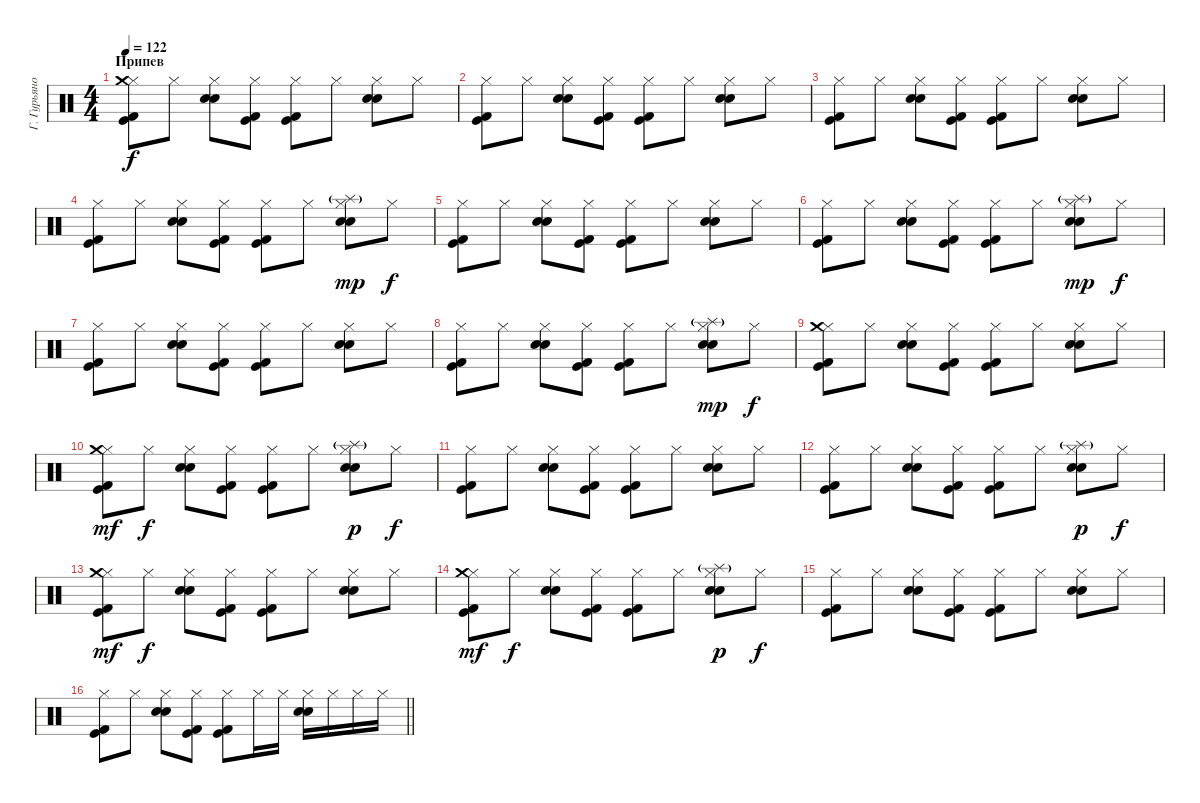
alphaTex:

\track ("Г. Гурьянов" "Г. Гурьяно") {instrument percussion}
\staff
\articulation defaults
\ts (4 4)
\section ("" "Припев")
\tempo 122
\clef neutral
\ks c
("Hi-Hat (closed)" "Crash medium (hit)" "Kick (hit)" "Kick (hit) 2").8{dy f} "Hi-Hat (closed)".8 ("Hi-Hat (closed)" "Electric Snare (hit)" "Snare (hit) 2").8 ("Hi-Hat (closed)" "Kick (hit)" "Kick (hit) 2").8 ("Hi-Hat (closed)" "Kick (hit)" "Kick (hit) 2").8 "Hi-Hat (closed)".8 ("Hi-Hat (closed)" "Electric Snare (hit)" "Snare (hit) 2").8 "Hi-Hat (closed)".8 |
("Hi-Hat (closed)" "Kick (hit)" "Kick (hit) 2").8 "Hi-Hat (closed)".8 ("Hi-Hat (closed)" "Electric Snare (hit)" "Snare (hit) 2").8 ("Hi-Hat (closed)" "Kick (hit)" "Kick (hit) 2").8 ("Hi-Hat (closed)" "Kick (hit)" "Kick (hit) 2").8 "Hi-Hat (closed)".8 ("Hi-Hat (closed)" "Electric Snare (hit)" "Snare (hit) 2").8 "Hi-Hat (closed)".8 |
("Hi-Hat (closed)" "Kick (hit)" "Kick (hit) 2").8 "Hi-Hat (closed)".8 ("Hi-Hat (closed)" "Electric Snare (hit)" "Snare (hit) 2").8 ("Hi-Hat (closed)" "Kick (hit)" "Kick (hit) 2").8 ("Hi-Hat (closed)" "Kick (hit)" "Kick (hit) 2").8 "Hi-Hat (closed)".8 ("Hi-Hat (closed)" "Electric Snare (hit)" "Snare (hit) 2").8 "Hi-Hat (closed)".8 |
("Hi-Hat (closed)" "Kick (hit)" "Kick (hit) 2").8 "Hi-Hat (closed)".8 ("Hi-Hat (closed)" "Electric Snare (hit)" "Snare (hit) 2").8 ("Hi-Hat (closed)" "Kick (hit)" "Kick (hit) 2").8 ("Hi-Hat (closed)" "Kick (hit)" "Kick (hit) 2").8 "Hi-Hat (closed)".8 ("Hi-Hat (closed)" "Electric Snare (hit)" "Snare (hit) 2" "Splash (hit)"{g}).8{dy mp} "Hi-Hat (closed)".8{dy f} |
("Hi-Hat (closed)" "Kick (hit)" "Kick (hit) 2").8 "Hi-Hat (closed)".8 ("Hi-Hat (closed)" "Electric Snare (hit)" "Snare (hit) 2").8 ("Hi-Hat (closed)" "Kick (hit)" "Kick (hit) 2").8 ("Hi-Hat (closed)" "Kick (hit)" "Kick (hit) 2").8 "Hi-Hat (closed)".8 ("Hi-Hat (closed)" "Electric Snare (hit)" "Snare (hit) 2").8 "Hi-Hat (closed)".8 |
("Hi-Hat (closed)" "Kick (hit)" "Kick (hit) 2").8 "Hi-Hat (closed)".8 ("Hi-Hat (closed)" "Electric Snare (hit)" "Snare (hit) 2").8 ("Hi-Hat (closed)" "Kick (hit)" "Kick (hit) 2").8 ("Hi-Hat (closed)" "Kick (hit)" "Kick (hit) 2").8 "Hi-Hat (closed)".8 ("Hi-Hat (closed)" "Electric Snare (hit)" "Snare (hit) 2" "Splash (hit)"{g}).8{dy mp} "Hi-Hat (closed)".8{dy f} |
("Hi-Hat (closed)" "Kick (hit)" "Kick (hit) 2").8 "Hi-Hat (closed)".8 ("Hi-Hat (closed)" "Electric Snare (hit)" "Snare (hit) 2").8 ("Hi-Hat (closed)" "Kick (hit)" "Kick (hit) 2").8 ("Hi-Hat (closed)" "Kick (hit)" "Kick (hit) 2").8 "Hi-Hat (closed)".8 ("Hi-Hat (closed)" "Electric Snare (hit)" "Snare (hit) 2").8 "Hi-Hat (closed)".8 |
("Hi-Hat (closed)" "Kick (hit)" "Kick (hit) 2").8 "Hi-Hat (closed)".8 ("Hi-Hat (closed)" "Electric Snare (hit)" "Snare (hit) 2").8 ("Hi-Hat (closed)" "Kick (hit)" "Kick (hit) 2").8 ("Hi-Hat (closed)" "Kick (hit)" "Kick (hit) 2").8 "Hi-Hat (closed)".8 ("Hi-Hat (closed)" "Electric Snare (hit)" "Snare (hit) 2" "Splash (hit)"{g}).8{dy mp} "Hi-Hat (closed)".8{dy f} |
("Hi-Hat (closed)" "Crash medium (hit)" "Kick (hit)" "Kick (hit) 2").8 "Hi-Hat (closed)".8 ("Hi-Hat (closed)" "Electric Snare (hit)" "Snare (hit) 2").8 ("Hi-Hat (closed)" "Kick (hit)" "Kick (hit) 2").8 ("Hi-Hat (closed)" "Kick (hit)" "Kick (hit) 2").8 "Hi-Hat (closed)".8 ("Hi-Hat (closed)" "Electric Snare (hit)" "Snare (hit) 2").8 "Hi-Hat (closed)".8 |
("Hi-Hat (closed)" "Crash medium (hit)" "Kick (hit)" "Kick (hit) 2").8{dy mf} "Hi-Hat (closed)".8{dy f} ("Hi-Hat (closed)" "Electric Snare (hit)" "Snare (hit) 2").8 ("Hi-Hat (closed)" "Kick (hit)" "Kick (hit) 2").8 ("Hi-Hat (closed)" "Kick (hit)" "Kick (hit) 2").8 "Hi-Hat (closed)".8 ("Hi-Hat (closed)" "Electric Snare (hit)" "Snare (hit) 2" "Splash (hit)"{g}).8{dy p} "Hi-Hat (closed)".8{dy f} |
("Hi-Hat (closed)" "Kick (hit)" "Kick (hit) 2").8 "Hi-Hat (closed)".8 ("Hi-Hat (closed)" "Electric Snare (hit)" "Snare (hit) 2").8 ("Hi-Hat (closed)" "Kick (hit)" "Kick (hit) 2").8 ("Hi-Hat (closed)" "Kick (hit)" "Kick (hit) 2").8 "Hi-Hat (closed)".8 ("Hi-Hat (closed)" "Electric Snare (hit)" "Snare (hit) 2").8 "Hi-Hat (closed)".8 |
("Hi-Hat (closed)" "Kick (hit)" "Kick (hit) 2").8 "Hi-Hat (closed)".8 ("Hi-Hat (closed)" "Electric Snare (hit)" "Snare (hit) 2").8 ("Hi-Hat (closed)" "Kick (hit)" "Kick (hit) 2").8 ("Hi-Hat (closed)" "Kick (hit)" "Kick (hit) 2").8 "Hi-Hat (closed)".8 ("Hi-Hat (closed)" "Electric Snare (hit)" "Snare (hit) 2" "Splash (hit)"{g}).8{dy p} "Hi-Hat (closed)".8{dy f} |
("Hi-Hat (closed)" "Crash medium (hit)" "Kick (hit)" "Kick (hit) 2").8{dy mf} "Hi-Hat (closed)".8{dy f} ("Hi-Hat (closed)" "Electric Snare (hit)" "Snare (hit) 2").8 ("Hi-Hat (closed)" "Kick (hit)" "Kick (hit) 2").8 ("Hi-Hat (closed)" "Kick (hit)" "Kick (hit) 2").8 "Hi-Hat (closed)".8 ("Hi-Hat (closed)" "Electric Snare (hit)" "Snare (hit) 2").8 "Hi-Hat (closed)".8 |
("Hi-Hat (closed)" "Crash medium (hit)" "Kick (hit)" "Kick (hit) 2").8{dy mf} "Hi-Hat (closed)".8{dy f} ("Hi-Hat (closed)" "Electric Snare (hit)" "Snare (hit) 2").8 ("Hi-Hat (closed)" "Kick (hit)" "Kick (hit) 2").8 ("Hi-Hat (closed)" "Kick (hit)" "Kick (hit) 2").8 "Hi-Hat (closed)".8 ("Hi-Hat (closed)" "Electric Snare (hit)" "Snare (hit) 2" "Splash (hit)"{g}).8{dy p} "Hi-Hat (closed)".8{dy f} |
("Hi-Hat (closed)" "Kick (hit)" "Kick (hit) 2").8 "Hi-Hat (closed)".8 ("Hi-Hat (closed)" "Electric Snare (hit)" "Snare (hit) 2").8 ("Hi-Hat (closed)" "Kick (hit)" "Kick (hit) 2").8 ("Hi-Hat (closed)" "Kick (hit)" "Kick (hit) 2").8 "Hi-Hat (closed)".8 ("Hi-Hat (closed)" "Electric Snare (hit)" "Snare (hit) 2").8 "Hi-Hat (closed)".8 |
\barLineRight lightlight
("Hi-Hat (closed)" "Kick (hit)" "Kick (hit) 2").8 "Hi-Hat (closed)".8 ("Hi-Hat (closed)" "Electric Snare (hit)" "Snare (hit) 2").8 ("Hi-Hat (closed)" "Kick (hit)" "Kick (hit) 2").8 ("Hi-Hat (closed)" "Kick (hit)" "Kick (hit) 2").8 "Hi-Hat (closed)".16 "Hi-Hat (closed)".16 ("Hi-Hat (closed)" "Electric Snare (hit)" "Snare (hit) 2").16 "Hi-Hat (closed)".16 "Hi-Hat (closed)".16 "Hi-Hat (closed)".16
